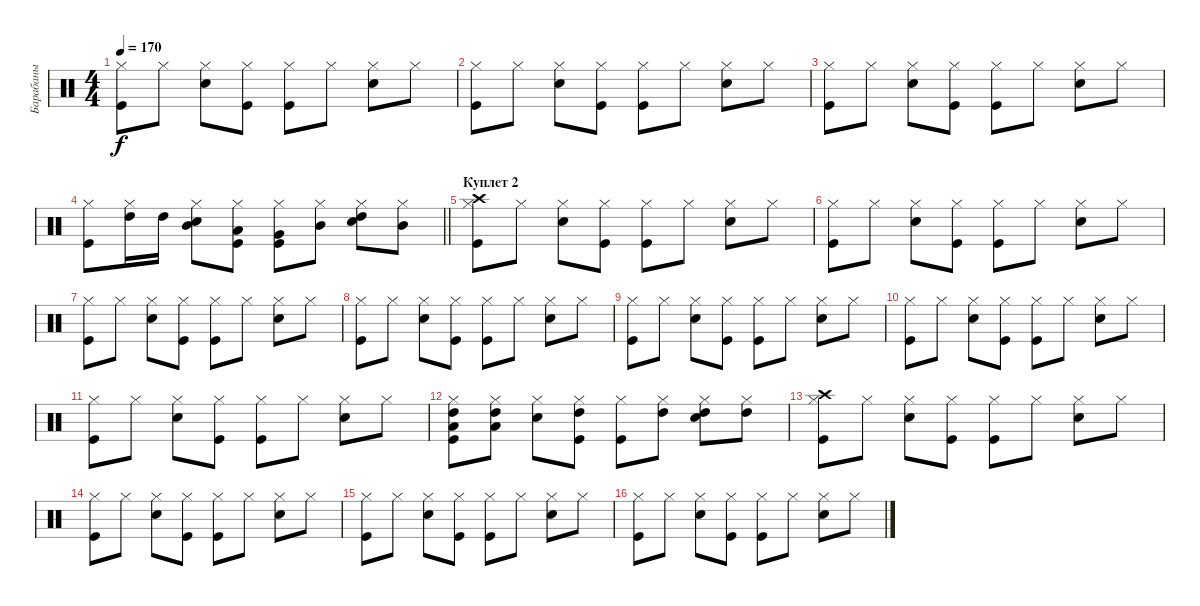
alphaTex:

\track ("Барабаны" "Барабаны") {instrument percussion}
\staff {score}
\articulation defaults
\ts (4 4)
\tempo 170
\clef neutral
\ks c
("Kick (hit)" "Hi-Hat (closed)").8{dy f} "Hi-Hat (closed)".8 ("Snare (hit) 2" "Hi-Hat (closed)").8 ("Kick (hit)" "Hi-Hat (closed)").8 ("Kick (hit)" "Hi-Hat (closed)").8 "Hi-Hat (closed)".8 ("Snare (hit) 2" "Hi-Hat (closed)").8 "Hi-Hat (closed)".8 |
("Kick (hit)" "Hi-Hat (closed)").8 "Hi-Hat (closed)".8 ("Snare (hit) 2" "Hi-Hat (closed)").8 ("Kick (hit)" "Hi-Hat (closed)").8 ("Kick (hit)" "Hi-Hat (closed)").8 "Hi-Hat (closed)".8 ("Snare (hit) 2" "Hi-Hat (closed)").8 "Hi-Hat (closed)".8 |
("Kick (hit)" "Hi-Hat (closed)").8 "Hi-Hat (closed)".8 ("Snare (hit) 2" "Hi-Hat (closed)").8 ("Kick (hit)" "Hi-Hat (closed)").8 ("Kick (hit)" "Hi-Hat (closed)").8 "Hi-Hat (closed)".8 ("Snare (hit) 2" "Hi-Hat (closed)").8 "Hi-Hat (closed)".8 |
\barLineRight lightlight
("Kick (hit)" "Hi-Hat (closed)").8 ("Hi-Hat (closed)" "High Tom (hit)").16 "High Tom (hit)".16 ("Snare (hit) 2" "Hi-Hat (closed)" "Mid Tom (hit)").8 ("Kick (hit)" "Hi-Hat (closed)" "Low Tom (hit)").8 ("Kick (hit)" "Hi-Hat (closed)" "Very Low Tom (hit)").8 ("Hi-Hat (closed)" "Mid Tom (hit)").8 ("Snare (hit) 2" "Hi-Hat (closed)" "High Tom (hit)").8 ("Hi-Hat (closed)" "Mid Tom (hit)").8 |
\section ("" "Куплет 2")
("Kick (hit)" "Hi-Hat (closed)" "Crash high (hit)").8 "Hi-Hat (closed)".8 ("Snare (hit) 2" "Hi-Hat (closed)").8 ("Kick (hit)" "Hi-Hat (closed)").8 ("Kick (hit)" "Hi-Hat (closed)").8 "Hi-Hat (closed)".8 ("Snare (hit) 2" "Hi-Hat (closed)").8 "Hi-Hat (closed)".8 |
("Kick (hit)" "Hi-Hat (closed)").8 "Hi-Hat (closed)".8 ("Snare (hit) 2" "Hi-Hat (closed)").8 ("Kick (hit)" "Hi-Hat (closed)").8 ("Kick (hit)" "Hi-Hat (closed)").8 "Hi-Hat (closed)".8 ("Snare (hit) 2" "Hi-Hat (closed)").8 "Hi-Hat (closed)".8 |
("Kick (hit)" "Hi-Hat (closed)").8 "Hi-Hat (closed)".8 ("Snare (hit) 2" "Hi-Hat (closed)").8 ("Kick (hit)" "Hi-Hat (closed)").8 ("Kick (hit)" "Hi-Hat (closed)").8 "Hi-Hat (closed)".8 ("Snare (hit) 2" "Hi-Hat (closed)").8 "Hi-Hat (closed)".8 |
("Kick (hit)" "Hi-Hat (closed)").8 "Hi-Hat (closed)".8 ("Snare (hit) 2" "Hi-Hat (closed)").8 ("Kick (hit)" "Hi-Hat (closed)").8 ("Kick (hit)" "Hi-Hat (closed)").8 "Hi-Hat (closed)".8 ("Snare (hit) 2" "Hi-Hat (closed)").8 "Hi-Hat (closed)".8 |
("Kick (hit)" "Hi-Hat (closed)").8 "Hi-Hat (closed)".8 ("Snare (hit) 2" "Hi-Hat (closed)").8 ("Kick (hit)" "Hi-Hat (closed)").8 ("Kick (hit)" "Hi-Hat (closed)").8 "Hi-Hat (closed)".8 ("Snare (hit) 2" "Hi-Hat (closed)").8 "Hi-Hat (closed)".8 |
("Kick (hit)" "Hi-Hat (closed)").8 "Hi-Hat (closed)".8 ("Snare (hit) 2" "Hi-Hat (closed)").8 ("Kick (hit)" "Hi-Hat (closed)").8 ("Kick (hit)" "Hi-Hat (closed)").8 "Hi-Hat (closed)".8 ("Snare (hit) 2" "Hi-Hat (closed)").8 "Hi-Hat (closed)".8 |
("Kick (hit)" "Hi-Hat (closed)").8 "Hi-Hat (closed)".8 ("Snare (hit) 2" "Hi-Hat (closed)").8 ("Kick (hit)" "Hi-Hat (closed)").8 ("Kick (hit)" "Hi-Hat (closed)").8 "Hi-Hat (closed)".8 ("Snare (hit) 2" "Hi-Hat (closed)").8 "Hi-Hat (closed)".8 |
("Kick (hit)" "Hi-Hat (closed)" "Low Floor Tom (hit)" "High Tom (hit)").8 ("Hi-Hat (closed)" "Low Floor Tom (hit)" "High Tom (hit)").8 ("Snare (hit) 2" "Hi-Hat (closed)").8 ("Kick (hit)" "Hi-Hat (closed)" "High Tom (hit)").8 ("Kick (hit)" "Hi-Hat (closed)").8 ("Hi-Hat (closed)" "High Tom (hit)").8 ("Snare (hit) 2" "Hi-Hat (closed)" "High Tom (hit)").8 ("Hi-Hat (closed)" "High Tom (hit)").8 |
("Kick (hit)" "Hi-Hat (closed)" "Crash high (hit)").8 "Hi-Hat (closed)".8 ("Snare (hit) 2" "Hi-Hat (closed)").8 ("Kick (hit)" "Hi-Hat (closed)").8 ("Kick (hit)" "Hi-Hat (closed)").8 "Hi-Hat (closed)".8 ("Snare (hit) 2" "Hi-Hat (closed)").8 "Hi-Hat (closed)".8 |
("Kick (hit)" "Hi-Hat (closed)").8 "Hi-Hat (closed)".8 ("Snare (hit) 2" "Hi-Hat (closed)").8 ("Kick (hit)" "Hi-Hat (closed)").8 ("Kick (hit)" "Hi-Hat (closed)").8 "Hi-Hat (closed)".8 ("Snare (hit) 2" "Hi-Hat (closed)").8 "Hi-Hat (closed)".8 |
("Kick (hit)" "Hi-Hat (closed)").8 "Hi-Hat (closed)".8 ("Snare (hit) 2" "Hi-Hat (closed)").8 ("Kick (hit)" "Hi-Hat (closed)").8 ("Kick (hit)" "Hi-Hat (closed)").8 "Hi-Hat (closed)".8 ("Snare (hit) 2" "Hi-Hat (closed)").8 "Hi-Hat (closed)".8 |
("Kick (hit)" "Hi-Hat (closed)").8 "Hi-Hat (closed)".8 ("Snare (hit) 2" "Hi-Hat (closed)").8 ("Kick (hit)" "Hi-Hat (closed)").8 ("Kick (hit)" "Hi-Hat (closed)").8 "Hi-Hat (closed)".8 ("Snare (hit) 2" "Hi-Hat (closed)").8 "Hi-Hat (closed)".8
